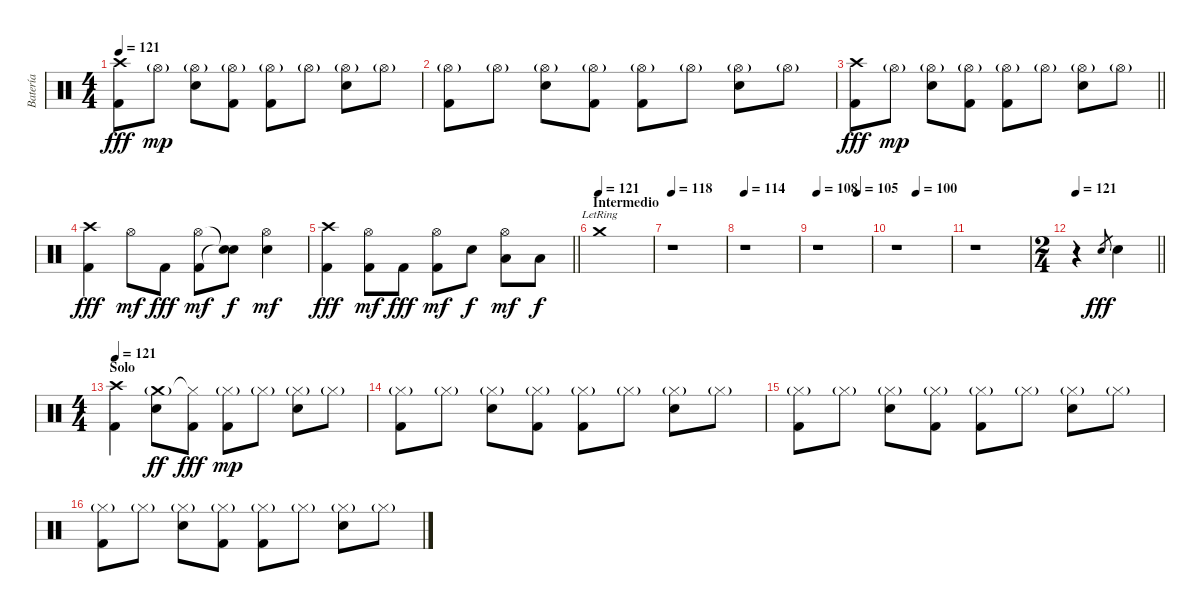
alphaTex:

\track ("Batería" "Batería") {instrument percussion}
\staff {score}
\articulation defaults
\ts (4 4)
\tempo 121
\clef neutral
\ks c
("Kick (hit) 2" "Crash high (hit)").8{dy fff} "Hi-Hat (open)"{g}.8{dy mp} ("Snare (hit) 2" "Hi-Hat (open)"{g}).8 ("Kick (hit) 2" "Hi-Hat (open)"{g}).8 ("Kick (hit) 2" "Hi-Hat (open)"{g}).8 "Hi-Hat (open)"{g}.8 ("Snare (hit) 2" "Hi-Hat (open)"{g}).8 "Hi-Hat (open)"{g}.8 |
("Kick (hit) 2" "Hi-Hat (open)"{g}).8 "Hi-Hat (open)"{g}.8 ("Snare (hit) 2" "Hi-Hat (open)"{g}).8 ("Kick (hit) 2" "Hi-Hat (open)"{g}).8 ("Kick (hit) 2" "Hi-Hat (open)"{g}).8 "Hi-Hat (open)"{g}.8 ("Snare (hit) 2" "Hi-Hat (open)"{g}).8 "Hi-Hat (open)"{g}.8 |
\barLineRight lightlight
("Kick (hit) 2" "Crash high (hit)").8{dy fff} "Hi-Hat (open)"{g}.8{dy mp} ("Snare (hit) 2" "Hi-Hat (open)"{g}).8 ("Kick (hit) 2" "Hi-Hat (open)"{g}).8 ("Kick (hit) 2" "Hi-Hat (open)"{g}).8 "Hi-Hat (open)"{g}.8 ("Snare (hit) 2" "Hi-Hat (open)"{g}).8 "Hi-Hat (open)"{g}.8 |
("Kick (hit) 2" "Crash high (hit)").4{dy fff} "Hi-Hat (open)".8{dy mf} "Kick (hit) 2".8{dy fff} ("Kick (hit) 2" "Hi-Hat (open)").8{dy mf} ("Snare (hit)"{t} "Snare (hit)"{t}).8{dy f} ("Snare (hit) 2" "Hi-Hat (open)").4{dy mf} |
\barLineRight lightlight
("Kick (hit) 2" "Crash high (hit)").4{dy fff} ("Kick (hit) 2" "Hi-Hat (open)").8{dy mf} "Kick (hit) 2".8{dy fff} ("Kick (hit) 2" "Hi-Hat (open)").8{dy mf} "Snare (hit) 2".8{dy f} ("Low Tom (hit)" "Hi-Hat (open)").8{dy mf} "Low Floor Tom (hit)".8{dy f} |
\section ("" "Intermedio")
\tempo (121)
"Crash medium (hit)"{lr}.1 |
\tempo 118
r.1 |
\tempo 114
r.1 |
\tempo 108
\tempo (105 0.75)
r.1 |
\tempo (100 0.375)
r.1 |
r.1 |
\ts (2 4)
\tempo 121
\barLineRight lightlight
r.4{volume 16} "Snare (hit) 2".8{gr dy fff} "Snare (hit) 2".4 |
\ts (4 4)
\section ("" "Solo")
\tempo 121
("Kick (hit) 2" "Crash high (hit)").4{volume 14} ("Snare (hit) 2" "Crash medium (hit)"{g}).8{dy ff} ("Kick (hit) 2" "Hi-Hat (closed)"{t}).8{dy fff} ("Kick (hit) 2" "Hi-Hat (closed)"{g}).8{dy mp} "Hi-Hat (closed)"{g}.8 ("Snare (hit) 2" "Hi-Hat (closed)"{g}).8 "Hi-Hat (closed)"{g}.8 |
("Kick (hit) 2" "Hi-Hat (closed)"{g}).8 "Hi-Hat (closed)"{g}.8 ("Snare (hit) 2" "Hi-Hat (closed)"{g}).8 ("Kick (hit) 2" "Hi-Hat (closed)"{g}).8 ("Kick (hit) 2" "Hi-Hat (closed)"{g}).8 "Hi-Hat (closed)"{g}.8 ("Snare (hit) 2" "Hi-Hat (closed)"{g}).8 "Hi-Hat (closed)"{g}.8 |
("Kick (hit) 2" "Hi-Hat (closed)"{g}).8 "Hi-Hat (closed)"{g}.8 ("Snare (hit) 2" "Hi-Hat (closed)"{g}).8 ("Kick (hit) 2" "Hi-Hat (closed)"{g}).8 ("Kick (hit) 2" "Hi-Hat (closed)"{g}).8 "Hi-Hat (closed)"{g}.8 ("Snare (hit) 2" "Hi-Hat (closed)"{g}).8 "Hi-Hat (closed)"{g}.8 |
("Kick (hit) 2" "Hi-Hat (closed)"{g}).8 "Hi-Hat (closed)"{g}.8 ("Snare (hit) 2" "Hi-Hat (closed)"{g}).8 ("Kick (hit) 2" "Hi-Hat (closed)"{g}).8 ("Kick (hit) 2" "Hi-Hat (closed)"{g}).8 "Hi-Hat (closed)"{g}.8 ("Snare (hit) 2" "Hi-Hat (closed)"{g}).8 "Hi-Hat (closed)"{g}.8
